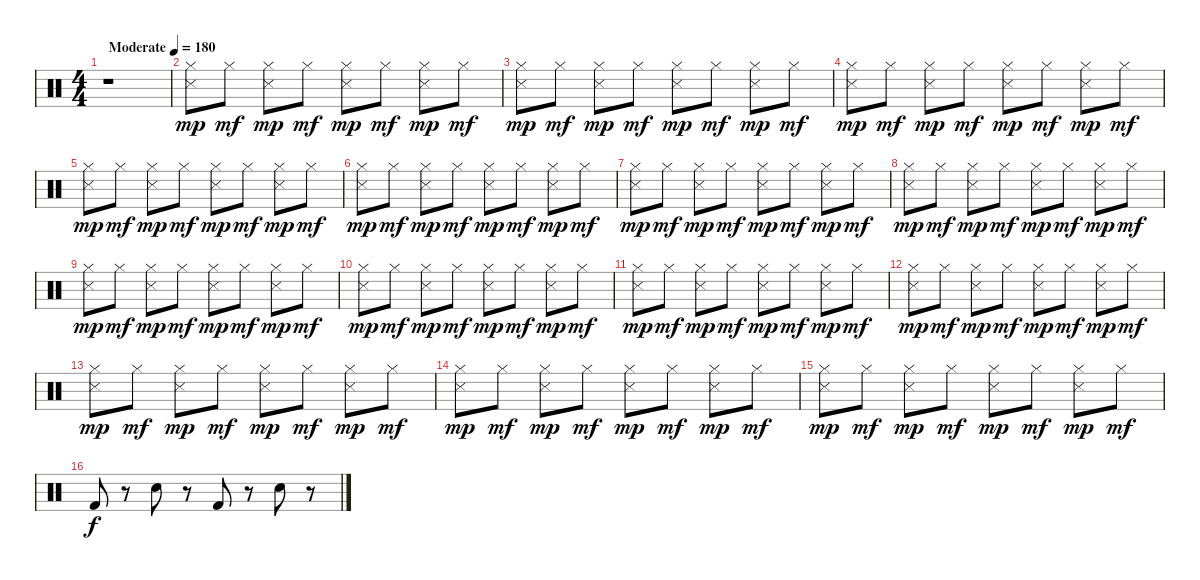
\track "" {instrument percussion}
\staff {score}
\articulation defaults
\ts (4 4)
\tempo (180 "Moderate")
\clef neutral
\ks c
r.1{dy mp} |
("Hi-Hat (closed)" "Snare (side stick) 3").8 "Hi-Hat (closed)".8{dy mf} ("Hi-Hat (closed)" "Snare (side stick) 3").8{dy mp} "Hi-Hat (closed)".8{dy mf} ("Hi-Hat (closed)" "Snare (side stick) 3").8{dy mp} "Hi-Hat (closed)".8{dy mf} ("Hi-Hat (closed)" "Snare (side stick) 3").8{dy mp} "Hi-Hat (closed)".8{dy mf} |
("Hi-Hat (closed)" "Snare (side stick) 3").8{dy mp} "Hi-Hat (closed)".8{dy mf} ("Hi-Hat (closed)" "Snare (side stick) 3").8{dy mp} "Hi-Hat (closed)".8{dy mf} ("Hi-Hat (closed)" "Snare (side stick) 3").8{dy mp} "Hi-Hat (closed)".8{dy mf} ("Hi-Hat (closed)" "Snare (side stick) 3").8{dy mp} "Hi-Hat (closed)".8{dy mf} |
("Hi-Hat (closed)" "Snare (side stick) 3").8{dy mp} "Hi-Hat (closed)".8{dy mf} ("Hi-Hat (closed)" "Snare (side stick) 3").8{dy mp} "Hi-Hat (closed)".8{dy mf} ("Hi-Hat (closed)" "Snare (side stick) 3").8{dy mp} "Hi-Hat (closed)".8{dy mf} ("Hi-Hat (closed)" "Snare (side stick) 3").8{dy mp} "Hi-Hat (closed)".8{dy mf} |
("Hi-Hat (closed)" "Snare (side stick) 3").8{dy mp} "Hi-Hat (closed)".8{dy mf} ("Hi-Hat (closed)" "Snare (side stick) 3").8{dy mp} "Hi-Hat (closed)".8{dy mf} ("Hi-Hat (closed)" "Snare (side stick) 3").8{dy mp} "Hi-Hat (closed)".8{dy mf} ("Hi-Hat (closed)" "Snare (side stick) 3").8{dy mp} "Hi-Hat (closed)".8{dy mf} |
("Hi-Hat (closed)" "Snare (side stick) 3").8{dy mp} "Hi-Hat (closed)".8{dy mf} ("Hi-Hat (closed)" "Snare (side stick) 3").8{dy mp} "Hi-Hat (closed)".8{dy mf} ("Hi-Hat (closed)" "Snare (side stick) 3").8{dy mp} "Hi-Hat (closed)".8{dy mf} ("Hi-Hat (closed)" "Snare (side stick) 3").8{dy mp} "Hi-Hat (closed)".8{dy mf} |
("Hi-Hat (closed)" "Snare (side stick) 3").8{dy mp} "Hi-Hat (closed)".8{dy mf} ("Hi-Hat (closed)" "Snare (side stick) 3").8{dy mp} "Hi-Hat (closed)".8{dy mf} ("Hi-Hat (closed)" "Snare (side stick) 3").8{dy mp} "Hi-Hat (closed)".8{dy mf} ("Hi-Hat (closed)" "Snare (side stick) 3").8{dy mp} "Hi-Hat (closed)".8{dy mf} |
("Hi-Hat (closed)" "Snare (side stick) 3").8{dy mp} "Hi-Hat (closed)".8{dy mf} ("Hi-Hat (closed)" "Snare (side stick) 3").8{dy mp} "Hi-Hat (closed)".8{dy mf} ("Hi-Hat (closed)" "Snare (side stick) 3").8{dy mp} "Hi-Hat (closed)".8{dy mf} ("Hi-Hat (closed)" "Snare (side stick) 3").8{dy mp} "Hi-Hat (closed)".8{dy mf} |
("Hi-Hat (closed)" "Snare (side stick) 3").8{dy mp} "Hi-Hat (closed)".8{dy mf} ("Hi-Hat (closed)" "Snare (side stick) 3").8{dy mp} "Hi-Hat (closed)".8{dy mf} ("Hi-Hat (closed)" "Snare (side stick) 3").8{dy mp} "Hi-Hat (closed)".8{dy mf} ("Hi-Hat (closed)" "Snare (side stick) 3").8{dy mp} "Hi-Hat (closed)".8{dy mf} |
("Hi-Hat (closed)" "Snare (side stick) 3").8{dy mp} "Hi-Hat (closed)".8{dy mf} ("Hi-Hat (closed)" "Snare (side stick) 3").8{dy mp} "Hi-Hat (closed)".8{dy mf} ("Hi-Hat (closed)" "Snare (side stick) 3").8{dy mp} "Hi-Hat (closed)".8{dy mf} ("Hi-Hat (closed)" "Snare (side stick) 3").8{dy mp} "Hi-Hat (closed)".8{dy mf} |
("Hi-Hat (closed)" "Snare (side stick) 3").8{dy mp} "Hi-Hat (closed)".8{dy mf} ("Hi-Hat (closed)" "Snare (side stick) 3").8{dy mp} "Hi-Hat (closed)".8{dy mf} ("Hi-Hat (closed)" "Snare (side stick) 3").8{dy mp} "Hi-Hat (closed)".8{dy mf} ("Hi-Hat (closed)" "Snare (side stick) 3").8{dy mp} "Hi-Hat (closed)".8{dy mf} |
("Hi-Hat (closed)" "Snare (side stick) 3").8{dy mp} "Hi-Hat (closed)".8{dy mf} ("Hi-Hat (closed)" "Snare (side stick) 3").8{dy mp} "Hi-Hat (closed)".8{dy mf} ("Hi-Hat (closed)" "Snare (side stick) 3").8{dy mp} "Hi-Hat (closed)".8{dy mf} ("Hi-Hat (closed)" "Snare (side stick) 3").8{dy mp} "Hi-Hat (closed)".8{dy mf} |
("Hi-Hat (closed)" "Snare (side stick) 3").8{dy mp} "Hi-Hat (closed)".8{dy mf} ("Hi-Hat (closed)" "Snare (side stick) 3").8{dy mp} "Hi-Hat (closed)".8{dy mf} ("Hi-Hat (closed)" "Snare (side stick) 3").8{dy mp} "Hi-Hat (closed)".8{dy mf} ("Hi-Hat (closed)" "Snare (side stick) 3").8{dy mp} "Hi-Hat (closed)".8{dy mf} |
("Hi-Hat (closed)" "Snare (side stick) 3").8{dy mp} "Hi-Hat (closed)".8{dy mf} ("Hi-Hat (closed)" "Snare (side stick) 3").8{dy mp} "Hi-Hat (closed)".8{dy mf} ("Hi-Hat (closed)" "Snare (side stick) 3").8{dy mp} "Hi-Hat (closed)".8{dy mf} ("Hi-Hat (closed)" "Snare (side stick) 3").8{dy mp} "Hi-Hat (closed)".8{dy mf} |
("Hi-Hat (closed)" "Snare (side stick) 3").8{dy mp} "Hi-Hat (closed)".8{dy mf} ("Hi-Hat (closed)" "Snare (side stick) 3").8{dy mp} "Hi-Hat (closed)".8{dy mf} ("Hi-Hat (closed)" "Snare (side stick) 3").8{dy mp} "Hi-Hat (closed)".8{dy mf} ("Hi-Hat (closed)" "Snare (side stick) 3").8{dy mp} "Hi-Hat (closed)".8{dy mf} |
"Kick (hit) 2".8{dy f} r.8 "Snare (hit) 2".8 r.8 "Kick (hit) 2".8 r.8 "Snare (hit) 2".8 r.8
